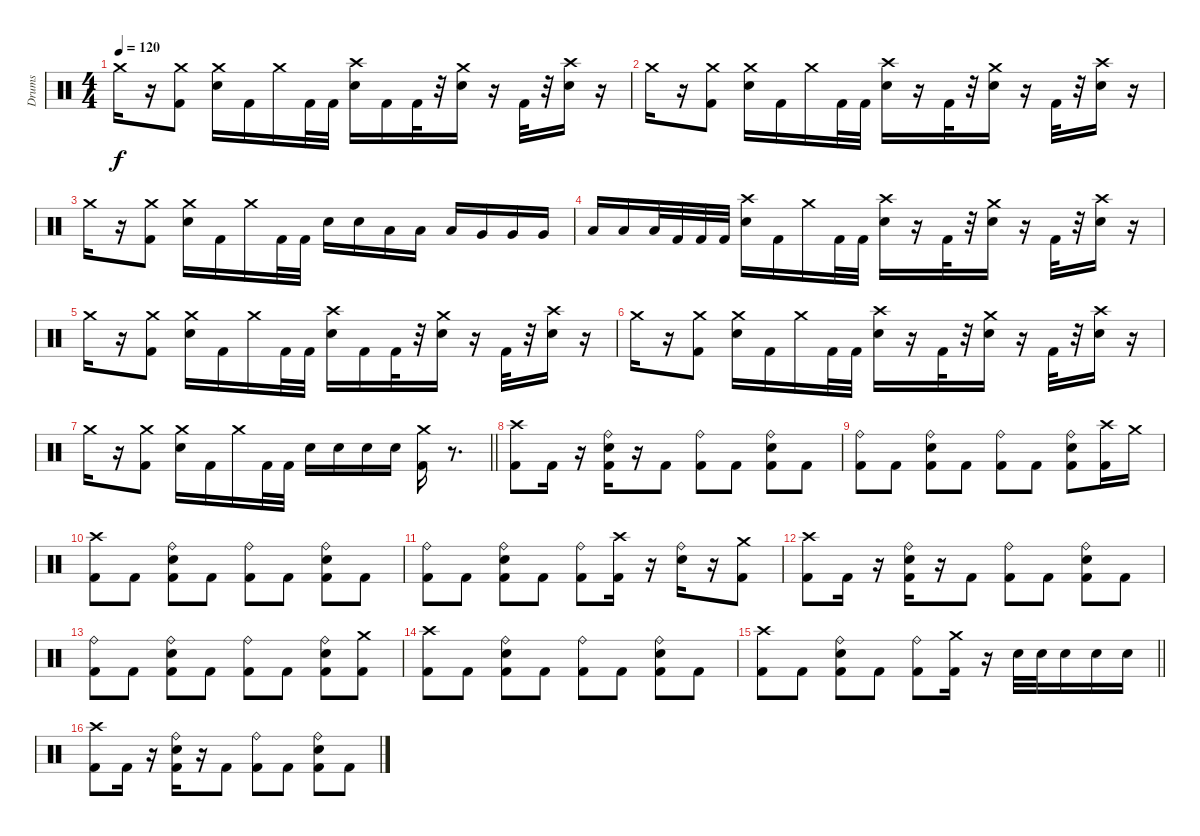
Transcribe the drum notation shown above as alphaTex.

\track ("Drums" "Drums") {instrument percussion}
\staff {score}
\articulation defaults
\ts (4 4)
\tempo 120
\clef neutral
\ks c "Crash medium (hit)".16{dy f}
r.16 ("Kick (hit) 2" "Crash medium (hit)").8 ("Snare (hit) 2" "Crash medium (hit)").16 "Kick (hit) 2".16 "Crash medium (hit)".16 "Kick (hit) 2".32 "Kick (hit) 2".32 ("Snare (hit) 2" "Crash high (hit)").16 "Kick (hit) 2".16 "Kick (hit) 2".32 r.32 ("Snare (hit) 2" "Crash medium (hit)").16 r.16 "Kick (hit) 2".32 r.32 ("Snare (hit) 2" "Crash high (hit)").16 r.16 |
"Crash medium (hit)".16 r.16 ("Kick (hit) 2" "Crash medium (hit)").8 ("Snare (hit) 2" "Crash medium (hit)").16 "Kick (hit) 2".16 "Crash medium (hit)".16 "Kick (hit) 2".32 "Kick (hit) 2".32 ("Snare (hit) 2" "Crash high (hit)").16 r.16 "Kick (hit) 2".32 r.32 ("Snare (hit) 2" "Crash medium (hit)").16 r.16 "Kick (hit) 2".32 r.32 ("Snare (hit) 2" "Crash high (hit)").16 r.16 |
"Crash medium (hit)".16 r.16 ("Kick (hit) 2" "Crash medium (hit)").8 ("Snare (hit) 2" "Crash medium (hit)").16 "Kick (hit) 2".16 "Crash medium (hit)".16 "Kick (hit) 2".32 "Kick (hit) 2".32 "Snare (hit) 2".16 "Snare (hit) 2".16 "Low Tom (hit)".16 "Low Tom (hit)".16 "Low Tom (hit)".16 "Very Low Tom (hit)".16 "Very Low Tom (hit)".16 "Very Low Tom (hit)".16 |
"Low Floor Tom (hit)".16 "Low Floor Tom (hit)".16 "Low Floor Tom (hit)".32 "Kick (hit) 2".32 "Kick (hit) 2".32 "Kick (hit) 2".32 ("Snare (hit) 2" "Crash high (hit)").16 "Kick (hit) 2".16 "Crash medium (hit)".16 "Kick (hit) 2".32 "Kick (hit) 2".32 ("Snare (hit) 2" "Crash high (hit)").16 r.16 "Kick (hit) 2".32 r.32 ("Snare (hit) 2" "Crash medium (hit)").16 r.16 "Kick (hit) 2".32 r.32 ("Snare (hit) 2" "Crash high (hit)").16 r.16 |
"Crash medium (hit)".16 r.16 ("Kick (hit) 2" "Crash medium (hit)").8 ("Snare (hit) 2" "Crash medium (hit)").16 "Kick (hit) 2".16 "Crash medium (hit)".16 "Kick (hit) 2".32 "Kick (hit) 2".32 ("Snare (hit) 2" "Crash high (hit)").16 "Kick (hit) 2".16 "Kick (hit) 2".32 r.32 ("Snare (hit) 2" "Crash medium (hit)").16 r.16 "Kick (hit) 2".32 r.32 ("Snare (hit) 2" "Crash high (hit)").16 r.16 |
"Crash medium (hit)".16 r.16 ("Kick (hit) 2" "Crash medium (hit)").8 ("Snare (hit) 2" "Crash medium (hit)").16 "Kick (hit) 2".16 "Crash medium (hit)".16 "Kick (hit) 2".32 "Kick (hit) 2".32 ("Snare (hit) 2" "Crash high (hit)").16 r.16 "Kick (hit) 2".32 r.32 ("Snare (hit) 2" "Crash medium (hit)").16 r.16 "Kick (hit) 2".32 r.32 ("Snare (hit) 2" "Crash high (hit)").16 r.16 |
\barLineRight lightlight "Crash medium (hit)".16
r.16 ("Kick (hit) 2" "Crash medium (hit)").8 ("Snare (hit) 2" "Crash medium (hit)").16 "Kick (hit) 2".16 "Crash medium (hit)".16 "Kick (hit) 2".32 "Kick (hit) 2".32 "Snare (hit) 2".16 "Snare (hit) 2".16 "Snare (hit) 2".16 "Snare (hit) 2".16 ("Kick (hit) 2" "Crash medium (hit)").16 r.8{d} |
\section ("" " ")
("Kick (hit) 2" "Crash high (hit)").8 "Kick (hit) 2".16 r.16 ("Kick (hit) 2" "Snare (hit) 2" "Ride (bell)").16 r.16 "Kick (hit) 2".8 ("Kick (hit) 2" "Ride (bell)").8 "Kick (hit) 2".8 ("Kick (hit) 2" "Snare (hit) 2" "Ride (bell)").8 "Kick (hit) 2".8 |
("Kick (hit) 2" "Ride (bell)").8 "Kick (hit) 2".8 ("Kick (hit) 2" "Snare (hit) 2" "Ride (bell)").8 "Kick (hit) 2".8 ("Kick (hit) 2" "Ride (bell)").8 "Kick (hit) 2".8 ("Kick (hit) 2" "Snare (hit) 2" "Ride (bell)").8 ("Kick (hit) 2" "Crash high (hit)").16 "Crash medium (hit)".16 |
("Kick (hit) 2" "Crash high (hit)").8 "Kick (hit) 2".8 ("Kick (hit) 2" "Snare (hit) 2" "Ride (bell)").8 "Kick (hit) 2".8 ("Kick (hit) 2" "Ride (bell)").8 "Kick (hit) 2".8 ("Kick (hit) 2" "Snare (hit) 2" "Ride (bell)").8 "Kick (hit) 2".8 |
("Kick (hit) 2" "Ride (bell)").8 "Kick (hit) 2".8 ("Kick (hit) 2" "Snare (hit) 2" "Ride (bell)").8 "Kick (hit) 2".8 ("Kick (hit) 2" "Ride (bell)").8 ("Kick (hit) 2" "Crash high (hit)").16 r.16 ("Snare (hit) 2" "Ride (bell)").16 r.16 ("Kick (hit) 2" "Crash medium (hit)").8 |
("Kick (hit) 2" "Crash high (hit)").8 "Kick (hit) 2".16 r.16 ("Kick (hit) 2" "Snare (hit) 2" "Ride (bell)").16 r.16 "Kick (hit) 2".8 ("Kick (hit) 2" "Ride (bell)").8 "Kick (hit) 2".8 ("Kick (hit) 2" "Snare (hit) 2" "Ride (bell)").8 "Kick (hit) 2".8 |
("Kick (hit) 2" "Ride (bell)").8 "Kick (hit) 2".8 ("Kick (hit) 2" "Snare (hit) 2" "Ride (bell)").8 "Kick (hit) 2".8 ("Kick (hit) 2" "Ride (bell)").8 "Kick (hit) 2".8 ("Kick (hit) 2" "Snare (hit) 2" "Ride (bell)").8 ("Kick (hit) 2" "Crash medium (hit)").8 |
("Kick (hit) 2" "Crash high (hit)").8 "Kick (hit) 2".8 ("Kick (hit) 2" "Snare (hit) 2" "Ride (bell)").8 "Kick (hit) 2".8 ("Kick (hit) 2" "Ride (bell)").8 "Kick (hit) 2".8 ("Kick (hit) 2" "Snare (hit) 2" "Ride (bell)").8 "Kick (hit) 2".8 |
\barLineRight lightlight
("Kick (hit) 2" "Crash high (hit)").8 "Kick (hit) 2".8 ("Kick (hit) 2" "Snare (hit) 2" "Ride (bell)").8 "Kick (hit) 2".8 ("Kick (hit) 2" "Ride (bell)").8 ("Kick (hit) 2" "Crash medium (hit)").16 r.16 "Snare (hit) 2".32 "Snare (hit) 2".32 "Snare (hit) 2".16 "Snare (hit) 2".16 "Snare (hit) 2".16 |
\section ("" " ")
("Kick (hit) 2" "Crash high (hit)").8 "Kick (hit) 2".16 r.16 ("Kick (hit) 2" "Snare (hit) 2" "Ride (bell)").16 r.16 "Kick (hit) 2".8 ("Kick (hit) 2" "Ride (bell)").8 "Kick (hit) 2".8 ("Kick (hit) 2" "Snare (hit) 2" "Ride (bell)").8 "Kick (hit) 2".8
